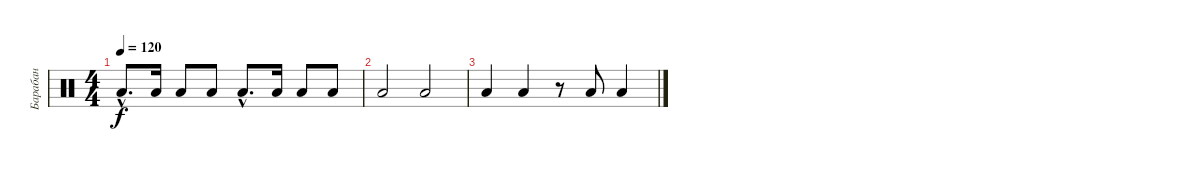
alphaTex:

\track ("Барабан" "Барабан") {instrument percussion}
\staff {score}
\articulation defaults
\ts (4 4)
\tempo 120
\clef neutral
\ks c "Low Floor Tom (hit)"{hac}.8{d dy f} "Low Floor Tom (hit)".16 "Low Floor Tom (hit)".8 "Low Floor Tom (hit)".8 "Low Floor Tom (hit)"{hac}.8{d} "Low Floor Tom (hit)".16 "Low Floor Tom (hit)".8 "Low Floor Tom (hit)".8
|
"Low Floor Tom (hit)".2 "Low Floor Tom (hit)".2 |
"Low Floor Tom (hit)".4 "Low Floor Tom (hit)".4 r.8 "Low Floor Tom (hit)".8 "Low Floor Tom (hit)".4
